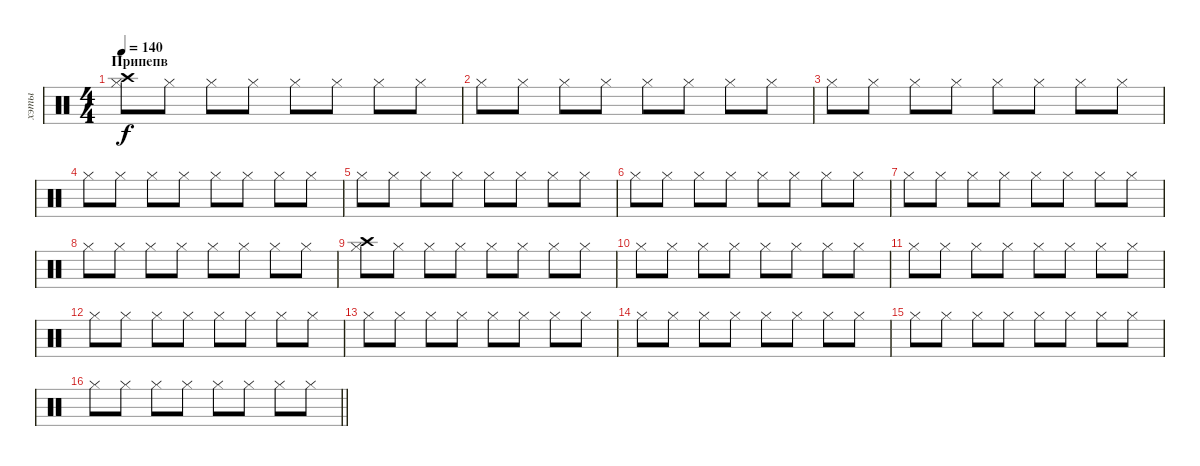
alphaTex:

\track ("хэты" "хэты") {instrument percussion}
\staff {score}
\articulation defaults
\ts (4 4)
\section ("" "Припепв")
\tempo 140
\clef neutral
\ks c
("Hi-Hat (closed)" "Crash high (hit)").8{dy f} "Hi-Hat (closed)".8 "Hi-Hat (closed)".8 "Hi-Hat (closed)".8 "Hi-Hat (closed)".8 "Hi-Hat (closed)".8 "Hi-Hat (closed)".8 "Hi-Hat (closed)".8 |
"Hi-Hat (closed)".8 "Hi-Hat (closed)".8 "Hi-Hat (closed)".8 "Hi-Hat (closed)".8 "Hi-Hat (closed)".8 "Hi-Hat (closed)".8 "Hi-Hat (closed)".8 "Hi-Hat (closed)".8 |
"Hi-Hat (closed)".8 "Hi-Hat (closed)".8 "Hi-Hat (closed)".8 "Hi-Hat (closed)".8 "Hi-Hat (closed)".8 "Hi-Hat (closed)".8 "Hi-Hat (closed)".8 "Hi-Hat (closed)".8 |
"Hi-Hat (closed)".8 "Hi-Hat (closed)".8 "Hi-Hat (closed)".8 "Hi-Hat (closed)".8 "Hi-Hat (closed)".8 "Hi-Hat (closed)".8 "Hi-Hat (closed)".8 "Hi-Hat (closed)".8 |
"Hi-Hat (closed)".8 "Hi-Hat (closed)".8 "Hi-Hat (closed)".8 "Hi-Hat (closed)".8 "Hi-Hat (closed)".8 "Hi-Hat (closed)".8 "Hi-Hat (closed)".8 "Hi-Hat (closed)".8 |
"Hi-Hat (closed)".8 "Hi-Hat (closed)".8 "Hi-Hat (closed)".8 "Hi-Hat (closed)".8 "Hi-Hat (closed)".8 "Hi-Hat (closed)".8 "Hi-Hat (closed)".8 "Hi-Hat (closed)".8 |
"Hi-Hat (closed)".8 "Hi-Hat (closed)".8 "Hi-Hat (closed)".8 "Hi-Hat (closed)".8 "Hi-Hat (closed)".8 "Hi-Hat (closed)".8 "Hi-Hat (closed)".8 "Hi-Hat (closed)".8 |
"Hi-Hat (closed)".8 "Hi-Hat (closed)".8 "Hi-Hat (closed)".8 "Hi-Hat (closed)".8 "Hi-Hat (closed)".8 "Hi-Hat (closed)".8 "Hi-Hat (closed)".8 "Hi-Hat (closed)".8 |
("Hi-Hat (closed)" "Crash high (hit)").8 "Hi-Hat (closed)".8 "Hi-Hat (closed)".8 "Hi-Hat (closed)".8 "Hi-Hat (closed)".8 "Hi-Hat (closed)".8 "Hi-Hat (closed)".8 "Hi-Hat (closed)".8 |
"Hi-Hat (closed)".8 "Hi-Hat (closed)".8 "Hi-Hat (closed)".8 "Hi-Hat (closed)".8 "Hi-Hat (closed)".8 "Hi-Hat (closed)".8 "Hi-Hat (closed)".8 "Hi-Hat (closed)".8 |
"Hi-Hat (closed)".8 "Hi-Hat (closed)".8 "Hi-Hat (closed)".8 "Hi-Hat (closed)".8 "Hi-Hat (closed)".8 "Hi-Hat (closed)".8 "Hi-Hat (closed)".8 "Hi-Hat (closed)".8 |
"Hi-Hat (closed)".8 "Hi-Hat (closed)".8 "Hi-Hat (closed)".8 "Hi-Hat (closed)".8 "Hi-Hat (closed)".8 "Hi-Hat (closed)".8 "Hi-Hat (closed)".8 "Hi-Hat (closed)".8 |
"Hi-Hat (closed)".8 "Hi-Hat (closed)".8 "Hi-Hat (closed)".8 "Hi-Hat (closed)".8 "Hi-Hat (closed)".8 "Hi-Hat (closed)".8 "Hi-Hat (closed)".8 "Hi-Hat (closed)".8 |
"Hi-Hat (closed)".8 "Hi-Hat (closed)".8 "Hi-Hat (closed)".8 "Hi-Hat (closed)".8 "Hi-Hat (closed)".8 "Hi-Hat (closed)".8 "Hi-Hat (closed)".8 "Hi-Hat (closed)".8 |
"Hi-Hat (closed)".8 "Hi-Hat (closed)".8 "Hi-Hat (closed)".8 "Hi-Hat (closed)".8 "Hi-Hat (closed)".8 "Hi-Hat (closed)".8 "Hi-Hat (closed)".8 "Hi-Hat (closed)".8 |
\barLineRight lightlight "Hi-Hat (closed)".8 "Hi-Hat (closed)".8 "Hi-Hat (closed)".8 "Hi-Hat (closed)".8 "Hi-Hat (closed)".8 "Hi-Hat (closed)".8 "Hi-Hat (closed)".8 "Hi-Hat (closed)".8
